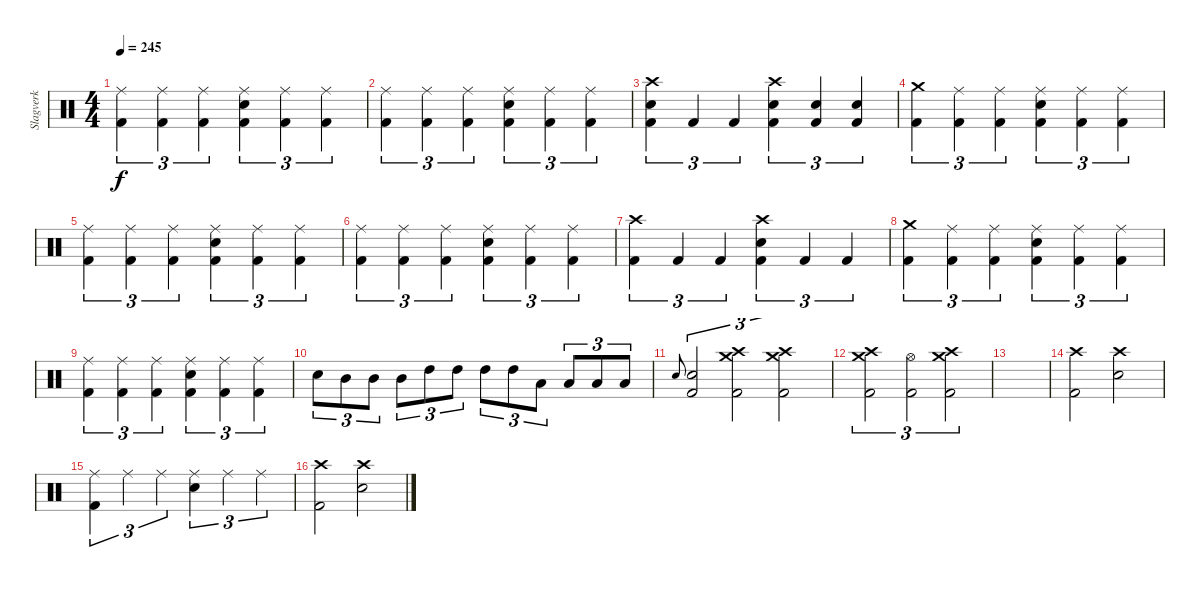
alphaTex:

\track ("Slagverk" "Slagverk") {instrument percussion}
\staff {score}
\articulation defaults
\ts (4 4)
\tempo 245
\clef neutral
\ks c
("Ride (middle)" "Kick (hit) 2").4{tu (3 2) dy f} ("Ride (middle)" "Kick (hit) 2").4{tu (3 2)} ("Ride (middle)" "Kick (hit) 2").4{tu (3 2)} ("Ride (middle)" "Snare (hit) 2" "Kick (hit) 2").4{tu (3 2)} ("Ride (middle)" "Kick (hit) 2").4{tu (3 2)} ("Ride (middle)" "Kick (hit) 2").4{tu (3 2)} |
("Ride (middle)" "Kick (hit) 2").4{tu (3 2)} ("Ride (middle)" "Kick (hit) 2").4{tu (3 2)} ("Ride (middle)" "Kick (hit) 2").4{tu (3 2)} ("Ride (middle)" "Snare (hit) 2" "Kick (hit) 2").4{tu (3 2)} ("Ride (middle)" "Kick (hit) 2").4{tu (3 2)} ("Ride (middle)" "Kick (hit) 2").4{tu (3 2)} |
("Crash high (hit)" "Snare (hit) 2" "Kick (hit) 2").4{tu (3 2)} "Kick (hit) 2".4{tu (3 2)} "Kick (hit) 2".4{tu (3 2)} ("Crash high (hit)" "Snare (hit) 2" "Kick (hit) 2").4{tu (3 2)} ("Snare (hit) 2" "Kick (hit) 2").4{tu (3 2)} ("Snare (hit) 2" "Kick (hit) 2").4{tu (3 2)} |
("Crash medium (hit)" "Kick (hit) 2").4{tu (3 2)} ("Ride (middle)" "Kick (hit) 2").4{tu (3 2)} ("Ride (middle)" "Kick (hit) 2").4{tu (3 2)} ("Ride (middle)" "Snare (hit) 2" "Kick (hit) 2").4{tu (3 2)} ("Ride (middle)" "Kick (hit) 2").4{tu (3 2)} ("Ride (middle)" "Kick (hit) 2").4{tu (3 2)} |
("Ride (middle)" "Kick (hit) 2").4{tu (3 2)} ("Ride (middle)" "Kick (hit) 2").4{tu (3 2)} ("Ride (middle)" "Kick (hit) 2").4{tu (3 2)} ("Ride (middle)" "Snare (hit) 2" "Kick (hit) 2").4{tu (3 2)} ("Ride (middle)" "Kick (hit) 2").4{tu (3 2)} ("Ride (middle)" "Kick (hit) 2").4{tu (3 2)} |
("Ride (middle)" "Kick (hit) 2").4{tu (3 2)} ("Ride (middle)" "Kick (hit) 2").4{tu (3 2)} ("Ride (middle)" "Kick (hit) 2").4{tu (3 2)} ("Ride (middle)" "Snare (hit) 2" "Kick (hit) 2").4{tu (3 2)} ("Ride (middle)" "Kick (hit) 2").4{tu (3 2)} ("Ride (middle)" "Kick (hit) 2").4{tu (3 2)} |
("Crash high (hit)" "Kick (hit) 2").4{tu (3 2)} "Kick (hit) 2".4{tu (3 2)} "Kick (hit) 2".4{tu (3 2)} ("Crash high (hit)" "Snare (hit) 2" "Kick (hit) 2").4{tu (3 2)} "Kick (hit) 2".4{tu (3 2)} "Kick (hit) 2".4{tu (3 2)} |
("Crash medium (hit)" "Kick (hit) 2").4{tu (3 2)} ("Ride (middle)" "Kick (hit) 2").4{tu (3 2)} ("Ride (middle)" "Kick (hit) 2").4{tu (3 2)} ("Ride (middle)" "Snare (hit) 2" "Kick (hit) 2").4{tu (3 2)} ("Ride (middle)" "Kick (hit) 2").4{tu (3 2)} ("Ride (middle)" "Kick (hit) 2").4{tu (3 2)} |
("Ride (middle)" "Kick (hit) 2").4{tu (3 2)} ("Ride (middle)" "Kick (hit) 2").4{tu (3 2)} ("Ride (middle)" "Kick (hit) 2").4{tu (3 2)} ("Ride (middle)" "Snare (hit) 2" "Kick (hit) 2").4{tu (3 2)} ("Ride (middle)" "Kick (hit) 2").4{tu (3 2)} ("Ride (middle)" "Kick (hit) 2").4{tu (3 2)} |
"Snare (hit) 2".8{tu (3 2)} "Mid Tom (hit)".8{tu (3 2)} "Mid Tom (hit)".8{tu (3 2)} "Mid Tom (hit)".8{tu (3 2)} "High Tom (hit)".8{tu (3 2)} "High Tom (hit)".8{tu (3 2)} "High Tom (hit)".8{tu (3 2)} "High Tom (hit)".8{tu (3 2)} "Low Tom (hit)".8{tu (3 2)} "Low Tom (hit)".8{tu (3 2)} "Low Tom (hit)".8{tu (3 2)} "Low Tom (hit)".8{tu (3 2)} |
"Snare (hit) 2".8{gr onbeat} ("Snare (hit) 2" "Kick (hit) 2").2{tu (3 2)} ("Crash medium (hit)" "Crash high (hit)" "Kick (hit) 2").2{tu (3 2)} ("Crash medium (hit)" "Crash high (hit)" "Kick (hit) 2").2{tu (3 2)} |
("Crash medium (hit)" "Crash high (hit)" "Kick (hit) 2").2{tu (3 2)} ("Hi-Hat (open)" "Kick (hit) 2").2{tu (3 2)} ("Crash medium (hit)" "Crash high (hit)" "Kick (hit) 2").2{tu (3 2)} |
|
("Crash high (hit)" "Kick (hit) 2").2 ("Crash high (hit)" "Snare (hit) 2").2 |
("Ride (middle)" "Kick (hit) 2").4{tu (3 2)} "Ride (middle)".4{tu (3 2)} "Ride (middle)".4{tu (3 2)} ("Ride (middle)" "Snare (hit) 2").4{tu (3 2)} "Ride (middle)".4{tu (3 2)} "Ride (middle)".4{tu (3 2)} |
("Crash high (hit)" "Kick (hit) 2").2 ("Crash high (hit)" "Snare (hit) 2").2
